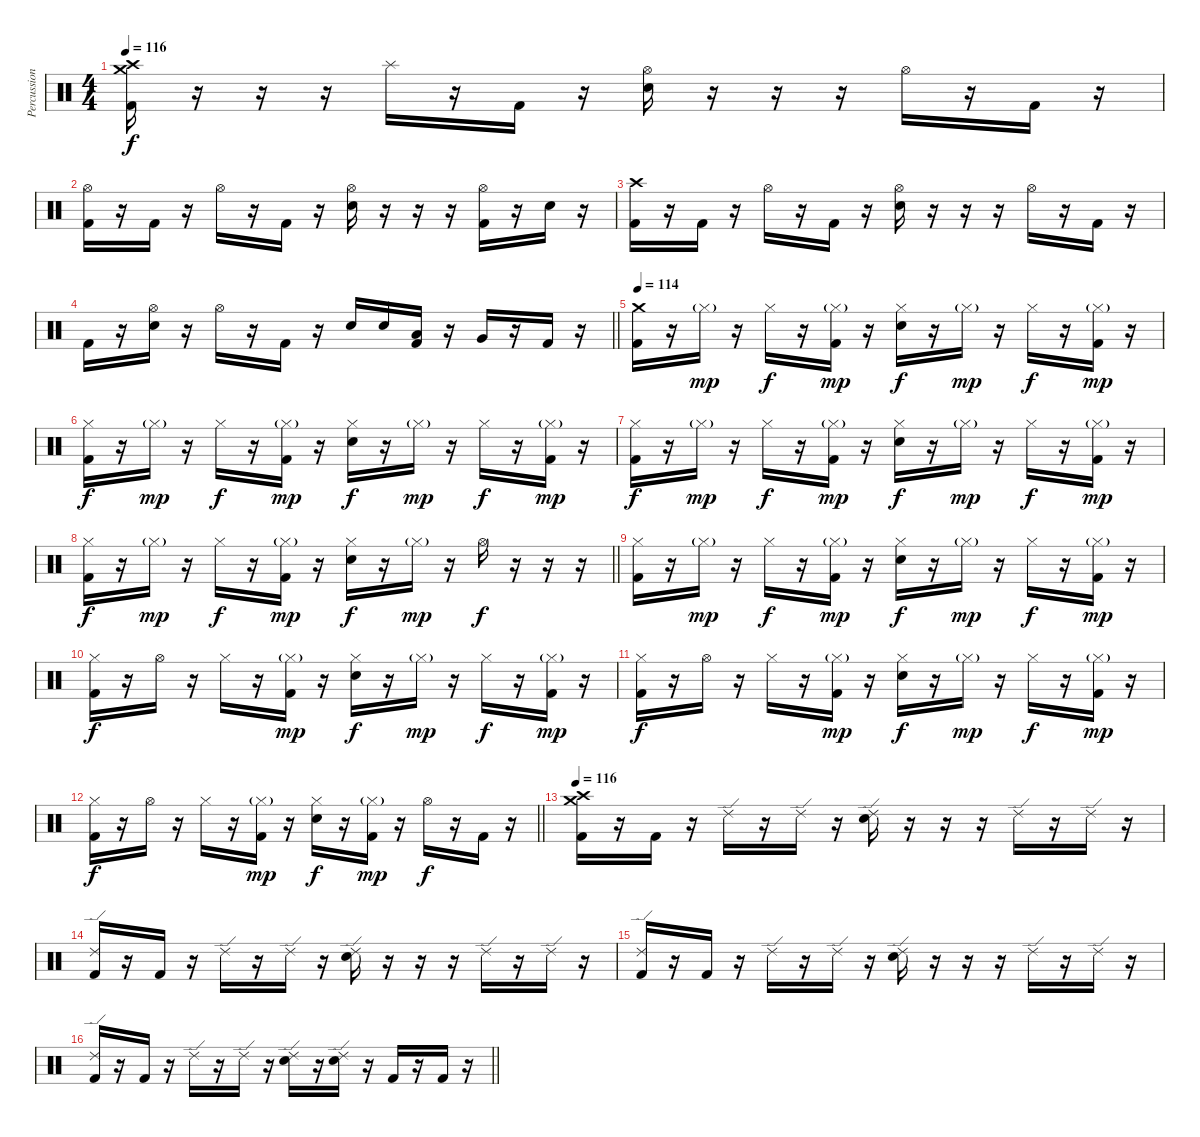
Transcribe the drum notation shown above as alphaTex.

\track ("Percussion" "Percussion") {instrument percussion}
\staff {score}
\articulation defaults
\ts (4 4)
\section ("" "")
\tempo 116
\clef neutral
\ks c
("Crash medium (hit)" "Crash high (hit)" "Kick (hit) 2").16{dy f} r.16 r.16 r.16 "Splash (hit)".16 r.16 "Kick (hit) 2".16 r.16 ("Hi-Hat (open)" "Electric Snare (hit)").16 r.16 r.16 r.16 "Hi-Hat (open)".16 r.16 "Kick (hit) 2".16 r.16 |
("Hi-Hat (open)" "Kick (hit) 2").16 r.16 "Kick (hit) 2".16 r.16 "Hi-Hat (open)".16 r.16 "Kick (hit) 2".16 r.16 ("Hi-Hat (open)" "Electric Snare (hit)").16 r.16 r.16 r.16 ("Hi-Hat (open)" "Kick (hit) 2").16 r.16 "Electric Snare (hit)".16 r.16 |
("Crash high (hit)" "Kick (hit) 2").16 r.16 "Kick (hit) 2".16 r.16 "Hi-Hat (open)".16 r.16 "Kick (hit) 2".16 r.16 ("Hi-Hat (open)" "Electric Snare (hit)").16 r.16 r.16 r.16 "Hi-Hat (open)".16 r.16 "Kick (hit) 2".16 r.16 |
\barLineRight lightlight "Kick (hit) 2".16
r.16 ("Hi-Hat (open)" "Electric Snare (hit)").16 r.16 "Hi-Hat (open)".16 r.16 "Kick (hit) 2".16 r.16 "Electric Snare (hit)".16 "Electric Snare (hit)".16 ("Low Tom (hit)" "Kick (hit) 2").16 r.16 "Very Low Tom (hit)".16 r.16 "Kick (hit) 2".16 r.16 |
\section ("" "")
\tempo 114
("Crash medium (hit)" "Kick (hit) 2").16 r.16 "Hi-Hat (closed)"{g}.16{dy mp} r.16 "Hi-Hat (closed)".16{dy f} r.16 ("Hi-Hat (closed)"{g} "Kick (hit) 2").16{dy mp} r.16 ("Hi-Hat (closed)" "Electric Snare (hit)").16{dy f} r.16 "Hi-Hat (closed)"{g}.16{dy mp} r.16 "Hi-Hat (closed)".16{dy f} r.16 ("Hi-Hat (closed)"{g} "Kick (hit) 2").16{dy mp} r.16 |
("Hi-Hat (closed)" "Kick (hit) 2").16{dy f} r.16 "Hi-Hat (closed)"{g}.16{dy mp} r.16 "Hi-Hat (closed)".16{dy f} r.16 ("Hi-Hat (closed)"{g} "Kick (hit) 2").16{dy mp} r.16 ("Hi-Hat (closed)" "Electric Snare (hit)").16{dy f} r.16 "Hi-Hat (closed)"{g}.16{dy mp} r.16 "Hi-Hat (closed)".16{dy f} r.16 ("Hi-Hat (closed)"{g} "Kick (hit) 2").16{dy mp} r.16 |
("Hi-Hat (closed)" "Kick (hit) 2").16{dy f} r.16 "Hi-Hat (closed)"{g}.16{dy mp} r.16 "Hi-Hat (closed)".16{dy f} r.16 ("Hi-Hat (closed)"{g} "Kick (hit) 2").16{dy mp} r.16 ("Hi-Hat (closed)" "Electric Snare (hit)").16{dy f} r.16 "Hi-Hat (closed)"{g}.16{dy mp} r.16 "Hi-Hat (closed)".16{dy f} r.16 ("Hi-Hat (closed)"{g} "Kick (hit) 2").16{dy mp} r.16 |
\barLineRight lightlight
("Hi-Hat (closed)" "Kick (hit) 2").16{dy f} r.16 "Hi-Hat (closed)"{g}.16{dy mp} r.16 "Hi-Hat (closed)".16{dy f} r.16 ("Hi-Hat (closed)"{g} "Kick (hit) 2").16{dy mp} r.16 ("Hi-Hat (closed)" "Electric Snare (hit)").16{dy f} r.16 "Hi-Hat (closed)"{g}.16{dy mp} r.16 "Hi-Hat (open)".16{dy f} r.16 r.16 r.16 |
\section ("" "")
("Hi-Hat (closed)" "Kick (hit) 2").16 r.16 "Hi-Hat (closed)"{g}.16{dy mp} r.16 "Hi-Hat (closed)".16{dy f} r.16 ("Hi-Hat (closed)"{g} "Kick (hit) 2").16{dy mp} r.16 ("Hi-Hat (closed)" "Electric Snare (hit)").16{dy f} r.16 "Hi-Hat (closed)"{g}.16{dy mp} r.16 "Hi-Hat (closed)".16{dy f} r.16 ("Hi-Hat (closed)"{g} "Kick (hit) 2").16{dy mp} r.16 |
("Hi-Hat (closed)" "Kick (hit) 2").16{dy f} r.16 "Hi-Hat (open)".16 r.16 "Hi-Hat (closed)".16 r.16 ("Hi-Hat (closed)"{g} "Kick (hit) 2").16{dy mp} r.16 ("Hi-Hat (closed)" "Electric Snare (hit)").16{dy f} r.16 "Hi-Hat (closed)"{g}.16{dy mp} r.16 "Hi-Hat (closed)".16{dy f} r.16 ("Hi-Hat (closed)"{g} "Kick (hit) 2").16{dy mp} r.16 |
("Hi-Hat (closed)" "Kick (hit) 2").16{dy f} r.16 "Hi-Hat (open)".16 r.16 "Hi-Hat (closed)".16 r.16 ("Hi-Hat (closed)"{g} "Kick (hit) 2").16{dy mp} r.16 ("Hi-Hat (closed)" "Electric Snare (hit)").16{dy f} r.16 "Hi-Hat (closed)"{g}.16{dy mp} r.16 "Hi-Hat (closed)".16{dy f} r.16 ("Hi-Hat (closed)"{g} "Kick (hit) 2").16{dy mp} r.16 |
\barLineRight lightlight
("Hi-Hat (closed)" "Kick (hit) 2").16{dy f} r.16 "Hi-Hat (open)".16 r.16 "Hi-Hat (closed)".16 r.16 ("Hi-Hat (closed)"{g} "Kick (hit) 2").16{dy mp} r.16 ("Hi-Hat (closed)" "Electric Snare (hit)").16{dy f} r.16 ("Hi-Hat (closed)"{g} "Kick (hit) 2").16{dy mp} r.16 "Hi-Hat (open)".16{dy f} r.16 "Kick (hit) 2".16 r.16 |
\section ("" "")
\tempo 116
("Crash medium (hit)" "Crash high (hit)" "Kick (hit) 2").16 r.16 "Kick (hit) 2".16 r.16 "Ride (edge) 2".16 r.16 "Ride (edge) 2".16 r.16 ("Ride (edge) 2" "Electric Snare (hit)").16 r.16 r.16 r.16 "Ride (edge) 2".16 r.16 "Ride (edge) 2".16 r.16 |
("Ride (edge) 2" "Kick (hit) 2").16 r.16 "Kick (hit) 2".16 r.16 "Ride (edge) 2".16 r.16 "Ride (edge) 2".16 r.16 ("Ride (edge) 2" "Electric Snare (hit)").16 r.16 r.16 r.16 "Ride (edge) 2".16 r.16 "Ride (edge) 2".16 r.16 |
("Ride (edge) 2" "Kick (hit) 2").16 r.16 "Kick (hit) 2".16 r.16 "Ride (edge) 2".16 r.16 "Ride (edge) 2".16 r.16 ("Ride (edge) 2" "Electric Snare (hit)").16 r.16 r.16 r.16 "Ride (edge) 2".16 r.16 "Ride (edge) 2".16 r.16 |
\barLineRight lightlight
("Ride (edge) 2" "Kick (hit) 2").16 r.16 "Kick (hit) 2".16 r.16 "Ride (edge) 2".16 r.16 "Ride (edge) 2".16 r.16 ("Ride (edge) 2" "Electric Snare (hit)").16 r.16 ("Ride (edge) 2" "Electric Snare (hit)").16 r.16 "Kick (hit) 2".16 r.16 "Kick (hit) 2".16 r.16
